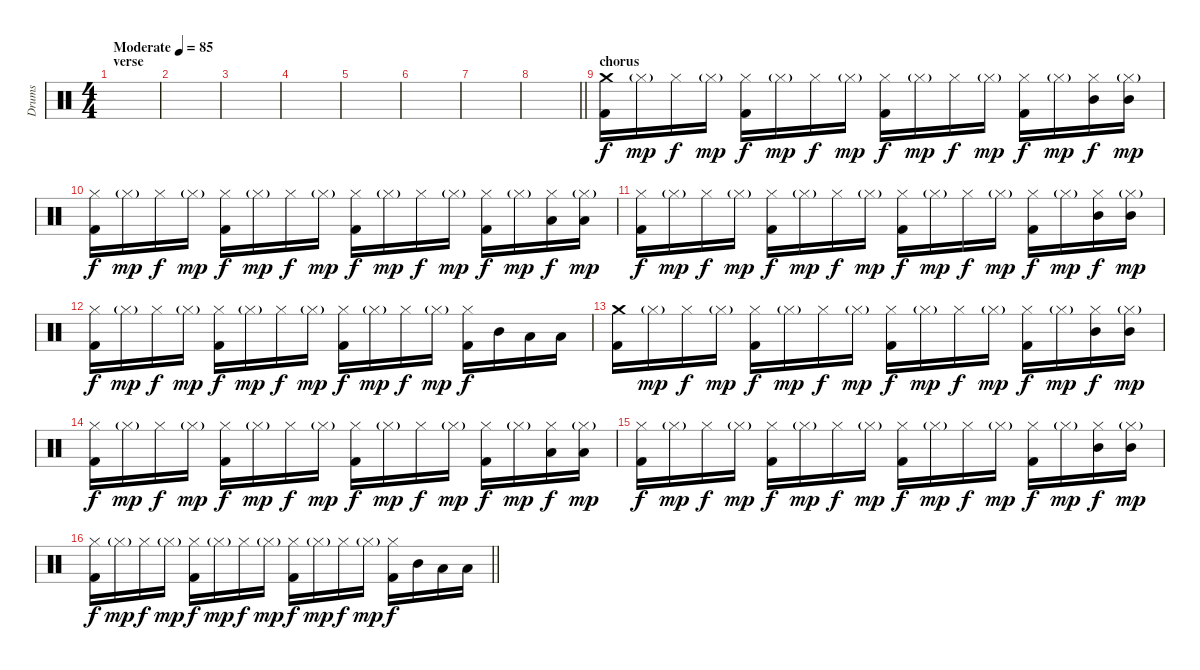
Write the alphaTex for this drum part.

\track ("Drums" "Drums") {instrument percussion}
\staff {score}
\articulation defaults
\ts (4 4)
\section ("" "verse")
\tempo (85 "Moderate")
\clef neutral
\ks c
|
|
|
|
|
|
|
\barLineRight lightlight
|
\section ("" "chorus")
("Kick (hit) 2" "Crash medium (hit)").16 "Hi-Hat (closed)"{g}.16{dy mp} "Hi-Hat (closed)".16{dy f} "Hi-Hat (closed)"{g}.16{dy mp} ("Kick (hit) 2" "Hi-Hat (closed)").16{dy f} "Hi-Hat (closed)"{g}.16{dy mp} "Hi-Hat (closed)".16{dy f} "Hi-Hat (closed)"{g}.16{dy mp} ("Kick (hit) 2" "Hi-Hat (closed)").16{dy f} "Hi-Hat (closed)"{g}.16{dy mp} "Hi-Hat (closed)".16{dy f} "Hi-Hat (closed)"{g}.16{dy mp} ("Kick (hit) 2" "Hi-Hat (closed)").16{dy f} "Hi-Hat (closed)"{g}.16{dy mp} ("Hi-Hat (closed)" "Mid Tom (hit)").16{dy f} ("Hi-Hat (closed)"{g} "Mid Tom (hit)").16{dy mp} |
("Kick (hit) 2" "Hi-Hat (closed)").16{dy f} "Hi-Hat (closed)"{g}.16{dy mp} "Hi-Hat (closed)".16{dy f} "Hi-Hat (closed)"{g}.16{dy mp} ("Kick (hit) 2" "Hi-Hat (closed)").16{dy f} "Hi-Hat (closed)"{g}.16{dy mp} "Hi-Hat (closed)".16{dy f} "Hi-Hat (closed)"{g}.16{dy mp} ("Kick (hit) 2" "Hi-Hat (closed)").16{dy f} "Hi-Hat (closed)"{g}.16{dy mp} "Hi-Hat (closed)".16{dy f} "Hi-Hat (closed)"{g}.16{dy mp} ("Kick (hit) 2" "Hi-Hat (closed)").16{dy f} "Hi-Hat (closed)"{g}.16{dy mp} ("Hi-Hat (closed)" "Low Tom (hit)").16{dy f} ("Hi-Hat (closed)"{g} "Low Tom (hit)").16{dy mp} |
("Kick (hit) 2" "Hi-Hat (closed)").16{dy f} "Hi-Hat (closed)"{g}.16{dy mp} "Hi-Hat (closed)".16{dy f} "Hi-Hat (closed)"{g}.16{dy mp} ("Kick (hit) 2" "Hi-Hat (closed)").16{dy f} "Hi-Hat (closed)"{g}.16{dy mp} "Hi-Hat (closed)".16{dy f} "Hi-Hat (closed)"{g}.16{dy mp} ("Kick (hit) 2" "Hi-Hat (closed)").16{dy f} "Hi-Hat (closed)"{g}.16{dy mp} "Hi-Hat (closed)".16{dy f} "Hi-Hat (closed)"{g}.16{dy mp} ("Kick (hit) 2" "Hi-Hat (closed)").16{dy f} "Hi-Hat (closed)"{g}.16{dy mp} ("Hi-Hat (closed)" "Mid Tom (hit)").16{dy f} ("Hi-Hat (closed)"{g} "Mid Tom (hit)").16{dy mp} |
("Kick (hit) 2" "Hi-Hat (closed)").16{dy f} "Hi-Hat (closed)"{g}.16{dy mp} "Hi-Hat (closed)".16{dy f} "Hi-Hat (closed)"{g}.16{dy mp} ("Kick (hit) 2" "Hi-Hat (closed)").16{dy f} "Hi-Hat (closed)"{g}.16{dy mp} "Hi-Hat (closed)".16{dy f} "Hi-Hat (closed)"{g}.16{dy mp} ("Kick (hit) 2" "Hi-Hat (closed)").16{dy f} "Hi-Hat (closed)"{g}.16{dy mp} "Hi-Hat (closed)".16{dy f} "Hi-Hat (closed)"{g}.16{dy mp} ("Kick (hit) 2" "Hi-Hat (closed)").16{dy f} "Mid Tom (hit)".16 "Low Tom (hit)".16 "Low Tom (hit)".16 |
("Kick (hit) 2" "Crash medium (hit)").16 "Hi-Hat (closed)"{g}.16{dy mp} "Hi-Hat (closed)".16{dy f} "Hi-Hat (closed)"{g}.16{dy mp} ("Kick (hit) 2" "Hi-Hat (closed)").16{dy f} "Hi-Hat (closed)"{g}.16{dy mp} "Hi-Hat (closed)".16{dy f} "Hi-Hat (closed)"{g}.16{dy mp} ("Kick (hit) 2" "Hi-Hat (closed)").16{dy f} "Hi-Hat (closed)"{g}.16{dy mp} "Hi-Hat (closed)".16{dy f} "Hi-Hat (closed)"{g}.16{dy mp} ("Kick (hit) 2" "Hi-Hat (closed)").16{dy f} "Hi-Hat (closed)"{g}.16{dy mp} ("Hi-Hat (closed)" "Mid Tom (hit)").16{dy f} ("Hi-Hat (closed)"{g} "Mid Tom (hit)").16{dy mp} |
("Kick (hit) 2" "Hi-Hat (closed)").16{dy f} "Hi-Hat (closed)"{g}.16{dy mp} "Hi-Hat (closed)".16{dy f} "Hi-Hat (closed)"{g}.16{dy mp} ("Kick (hit) 2" "Hi-Hat (closed)").16{dy f} "Hi-Hat (closed)"{g}.16{dy mp} "Hi-Hat (closed)".16{dy f} "Hi-Hat (closed)"{g}.16{dy mp} ("Kick (hit) 2" "Hi-Hat (closed)").16{dy f} "Hi-Hat (closed)"{g}.16{dy mp} "Hi-Hat (closed)".16{dy f} "Hi-Hat (closed)"{g}.16{dy mp} ("Kick (hit) 2" "Hi-Hat (closed)").16{dy f} "Hi-Hat (closed)"{g}.16{dy mp} ("Hi-Hat (closed)" "Low Tom (hit)").16{dy f} ("Hi-Hat (closed)"{g} "Low Tom (hit)").16{dy mp} |
("Kick (hit) 2" "Hi-Hat (closed)").16{dy f} "Hi-Hat (closed)"{g}.16{dy mp} "Hi-Hat (closed)".16{dy f} "Hi-Hat (closed)"{g}.16{dy mp} ("Kick (hit) 2" "Hi-Hat (closed)").16{dy f} "Hi-Hat (closed)"{g}.16{dy mp} "Hi-Hat (closed)".16{dy f} "Hi-Hat (closed)"{g}.16{dy mp} ("Kick (hit) 2" "Hi-Hat (closed)").16{dy f} "Hi-Hat (closed)"{g}.16{dy mp} "Hi-Hat (closed)".16{dy f} "Hi-Hat (closed)"{g}.16{dy mp} ("Kick (hit) 2" "Hi-Hat (closed)").16{dy f} "Hi-Hat (closed)"{g}.16{dy mp} ("Hi-Hat (closed)" "Mid Tom (hit)").16{dy f} ("Hi-Hat (closed)"{g} "Mid Tom (hit)").16{dy mp} |
\barLineRight lightlight
("Kick (hit) 2" "Hi-Hat (closed)").16{dy f} "Hi-Hat (closed)"{g}.16{dy mp} "Hi-Hat (closed)".16{dy f} "Hi-Hat (closed)"{g}.16{dy mp} ("Kick (hit) 2" "Hi-Hat (closed)").16{dy f} "Hi-Hat (closed)"{g}.16{dy mp} "Hi-Hat (closed)".16{dy f} "Hi-Hat (closed)"{g}.16{dy mp} ("Kick (hit) 2" "Hi-Hat (closed)").16{dy f} "Hi-Hat (closed)"{g}.16{dy mp} "Hi-Hat (closed)".16{dy f} "Hi-Hat (closed)"{g}.16{dy mp} ("Kick (hit) 2" "Hi-Hat (closed)").16{dy f} "Mid Tom (hit)".16 "Low Tom (hit)".16 "Low Tom (hit)".16
